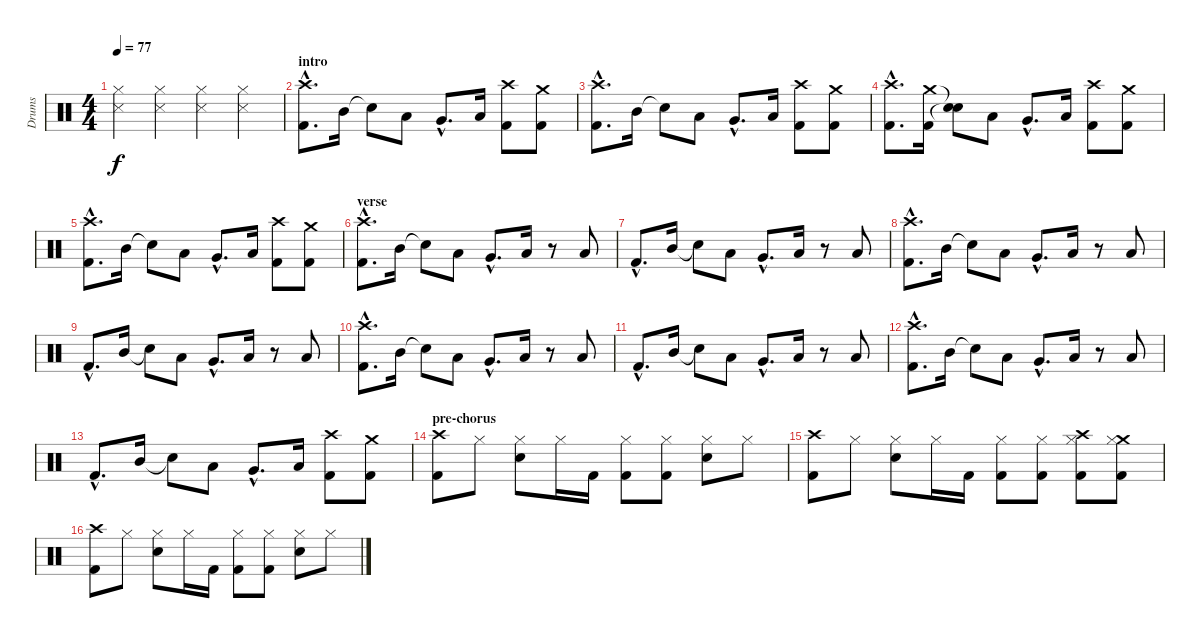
\track ("Drums" "Drums") {instrument percussion}
\staff {score}
\articulation defaults
\ts (4 4)
\tempo 77
\clef neutral
\ks c
("Snare (side stick) 3" "Hi-Hat (closed)").4{dy f} ("Snare (side stick) 3" "Hi-Hat (closed)").4 ("Snare (side stick) 3" "Hi-Hat (closed)").4 ("Snare (side stick) 3" "Hi-Hat (closed)").4 |
\section ("" "intro")
("Crash high (hit)"{hac} "Kick (hit) 2"{hac}).8{d} "Mid Tom (hit)".16 "Snare (hit)"{t}.8 "Low Tom (hit)".8 "Very Low Tom (hit)"{hac}.8{d} "Low Floor Tom (hit)".16 ("Crash high (hit)" "Kick (hit) 2").8 ("Crash medium (hit)" "Kick (hit) 2").8 |
("Crash high (hit)"{hac} "Kick (hit) 2"{hac}).8{d} "Mid Tom (hit)".16 "Snare (hit)"{t}.8 "Low Tom (hit)".8 "Very Low Tom (hit)"{hac}.8{d} "Low Floor Tom (hit)".16 ("Crash high (hit)" "Kick (hit) 2").8 ("Crash medium (hit)" "Kick (hit) 2").8 |
("Crash high (hit)"{hac} "Kick (hit) 2"{hac}).8{d} ("Crash medium (hit)" "Kick (hit) 2").16 ("Snare (hit)"{t} "Snare (hit)"{t}).8 "Low Tom (hit)".8 "Very Low Tom (hit)"{hac}.8{d} "Low Floor Tom (hit)".16 ("Crash high (hit)" "Kick (hit) 2").8 ("Crash medium (hit)" "Kick (hit) 2").8 |
("Crash high (hit)"{hac} "Kick (hit) 2"{hac}).8{d} "Mid Tom (hit)".16 "Snare (hit)"{t}.8 "Low Tom (hit)".8 "Very Low Tom (hit)"{hac}.8{d} "Low Floor Tom (hit)".16 ("Crash high (hit)" "Kick (hit) 2").8 ("Crash medium (hit)" "Kick (hit) 2").8 |
\section ("" "verse")
("Crash high (hit)"{hac} "Kick (hit) 2"{hac}).8{d} "Mid Tom (hit)".16 "Snare (hit)"{t}.8 "Low Tom (hit)".8 "Very Low Tom (hit)"{hac}.8{d} "Low Floor Tom (hit)".16 r.8 "Low Floor Tom (hit)".8 |
"Kick (hit) 2"{hac}.8{d} "Mid Tom (hit)".16 "Snare (hit)"{t}.8 "Low Tom (hit)".8 "Very Low Tom (hit)"{hac}.8{d} "Low Floor Tom (hit)".16 r.8 "Low Floor Tom (hit)".8 |
("Crash high (hit)"{hac} "Kick (hit) 2"{hac}).8{d} "Mid Tom (hit)".16 "Snare (hit)"{t}.8 "Low Tom (hit)".8 "Very Low Tom (hit)"{hac}.8{d} "Low Floor Tom (hit)".16 r.8 "Low Floor Tom (hit)".8 |
"Kick (hit) 2"{hac}.8{d} "Mid Tom (hit)".16 "Snare (hit)"{t}.8 "Low Tom (hit)".8 "Very Low Tom (hit)"{hac}.8{d} "Low Floor Tom (hit)".16 r.8 "Low Floor Tom (hit)".8 |
("Crash high (hit)"{hac} "Kick (hit) 2"{hac}).8{d} "Mid Tom (hit)".16 "Snare (hit)"{t}.8 "Low Tom (hit)".8 "Very Low Tom (hit)"{hac}.8{d} "Low Floor Tom (hit)".16 r.8 "Low Floor Tom (hit)".8 |
"Kick (hit) 2"{hac}.8{d} "Mid Tom (hit)".16 "Snare (hit)"{t}.8 "Low Tom (hit)".8 "Very Low Tom (hit)"{hac}.8{d} "Low Floor Tom (hit)".16 r.8 "Low Floor Tom (hit)".8 |
("Crash high (hit)"{hac} "Kick (hit) 2"{hac}).8{d} "Mid Tom (hit)".16 "Snare (hit)"{t}.8 "Low Tom (hit)".8 "Very Low Tom (hit)"{hac}.8{d} "Low Floor Tom (hit)".16 r.8 "Low Floor Tom (hit)".8 |
"Kick (hit) 2"{hac}.8{d} "Mid Tom (hit)".16 "Snare (hit)"{t}.8 "Low Tom (hit)".8 "Very Low Tom (hit)"{hac}.8{d} "Low Floor Tom (hit)".16 ("Crash high (hit)" "Kick (hit) 2").8 ("Crash medium (hit)" "Kick (hit) 2").8 |
\section ("" "pre-chorus")
("Crash high (hit)" "Kick (hit) 2").8 "Hi-Hat (closed)".8 ("Hi-Hat (closed)" "Snare (hit) 2").8 "Hi-Hat (closed)".16 "Kick (hit) 2".16 ("Hi-Hat (closed)" "Kick (hit) 2").8 ("Hi-Hat (closed)" "Kick (hit) 2").8 ("Hi-Hat (closed)" "Snare (hit) 2").8 "Hi-Hat (closed)".8 |
("Crash high (hit)" "Kick (hit) 2").8 "Hi-Hat (closed)".8 ("Hi-Hat (closed)" "Snare (hit) 2").8 "Hi-Hat (closed)".16 "Kick (hit) 2".16 ("Hi-Hat (closed)" "Kick (hit) 2").8 ("Hi-Hat (closed)" "Kick (hit) 2").8 ("Crash high (hit)" "Hi-Hat (closed)" "Kick (hit) 2").8 ("Crash medium (hit)" "Hi-Hat (closed)" "Kick (hit) 2").8 |
("Crash high (hit)" "Kick (hit) 2").8 "Hi-Hat (closed)".8 ("Hi-Hat (closed)" "Snare (hit) 2").8 "Hi-Hat (closed)".16 "Kick (hit) 2".16 ("Hi-Hat (closed)" "Kick (hit) 2").8 ("Hi-Hat (closed)" "Kick (hit) 2").8 ("Hi-Hat (closed)" "Snare (hit) 2").8 "Hi-Hat (closed)".8
